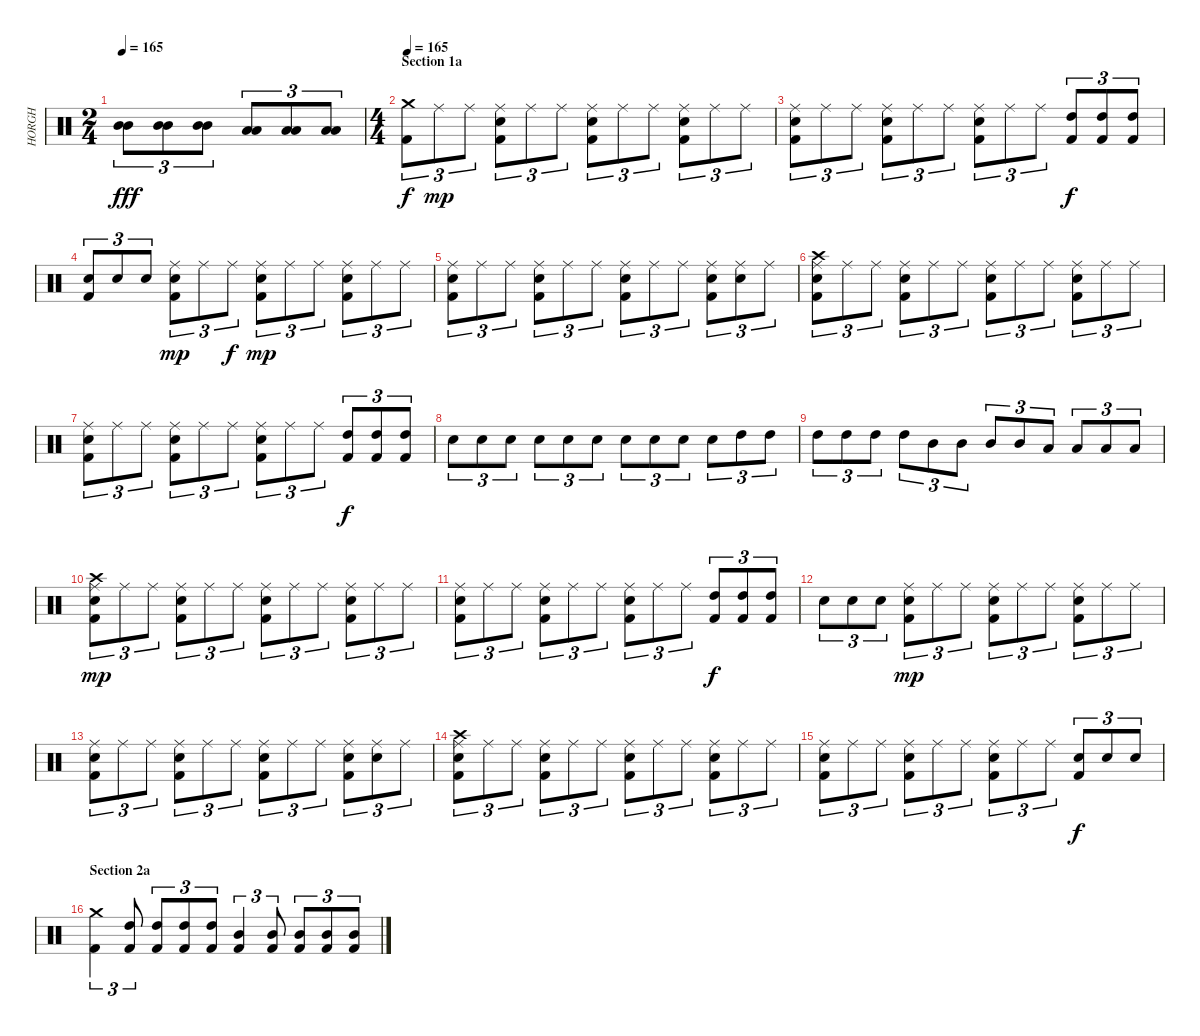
\track ("HORGH" "HORGH") {instrument percussion}
\staff {score}
\articulation defaults
\ts (2 4)
\tempo 165
\clef neutral
\ks c
("Mid Tom (hit)" "Mid Tom (hit)").8{tu (3 2) dy fff} ("Mid Tom (hit)" "Mid Tom (hit)").8{tu (3 2)} ("Mid Tom (hit)" "Mid Tom (hit)").8{tu (3 2)} ("Low Tom (hit)" "Low Tom (hit)").8{tu (3 2)} ("Low Tom (hit)" "Low Tom (hit)").8{tu (3 2)} ("Low Tom (hit)" "Low Tom (hit)").8{tu (3 2)} |
\ts (4 4)
\section ("" "Section 1a")
\tempo 165
("Crash medium (hit)" "Kick (hit) 2").8{tu (3 2) dy f} "Ride (middle)".8{tu (3 2) dy mp} "Ride (middle)".8{tu (3 2)} ("Ride (middle)" "Electric Snare (hit)" "Kick (hit) 2").8{tu (3 2)} "Ride (middle)".8{tu (3 2)} "Ride (middle)".8{tu (3 2)} ("Ride (middle)" "Electric Snare (hit)" "Kick (hit) 2").8{tu (3 2)} "Ride (middle)".8{tu (3 2)} "Ride (middle)".8{tu (3 2)} ("Ride (middle)" "Electric Snare (hit)" "Kick (hit) 2").8{tu (3 2)} "Ride (middle)".8{tu (3 2)} "Ride (middle)".8{tu (3 2)} |
("Ride (middle)" "Kick (hit) 2" "Electric Snare (hit)").8{tu (3 2)} "Ride (middle)".8{tu (3 2)} "Ride (middle)".8{tu (3 2)} ("Ride (middle)" "Electric Snare (hit)" "Kick (hit) 2").8{tu (3 2)} "Ride (middle)".8{tu (3 2)} "Ride (middle)".8{tu (3 2)} ("Ride (middle)" "Electric Snare (hit)" "Kick (hit) 2").8{tu (3 2)} "Ride (middle)".8{tu (3 2)} "Ride (middle)".8{tu (3 2)} ("High Tom (hit)" "Kick (hit) 2").8{tu (3 2) dy f} ("High Tom (hit)" "Kick (hit) 2").8{tu (3 2)} ("High Tom (hit)" "Kick (hit) 2").8{tu (3 2)} |
("Electric Snare (hit)" "Kick (hit) 2").8{tu (3 2)} "Electric Snare (hit)".8{tu (3 2)} "Electric Snare (hit)".8{tu (3 2)} ("Ride (middle)" "Electric Snare (hit)" "Kick (hit) 2").8{tu (3 2) dy mp} "Ride (middle)".8{tu (3 2)} "Ride (middle)".8{tu (3 2) dy f} ("Ride (middle)" "Electric Snare (hit)" "Kick (hit) 2").8{tu (3 2) dy mp} "Ride (middle)".8{tu (3 2)} "Ride (middle)".8{tu (3 2)} ("Ride (middle)" "Electric Snare (hit)" "Kick (hit) 2").8{tu (3 2)} "Ride (middle)".8{tu (3 2)} "Ride (middle)".8{tu (3 2)} |
("Ride (middle)" "Kick (hit) 2" "Electric Snare (hit)").8{tu (3 2)} "Ride (middle)".8{tu (3 2)} "Ride (middle)".8{tu (3 2)} ("Ride (middle)" "Electric Snare (hit)" "Kick (hit) 2").8{tu (3 2)} "Ride (middle)".8{tu (3 2)} "Ride (middle)".8{tu (3 2)} ("Ride (middle)" "Electric Snare (hit)" "Kick (hit) 2").8{tu (3 2)} "Ride (middle)".8{tu (3 2)} "Ride (middle)".8{tu (3 2)} ("Ride (middle)" "Electric Snare (hit)" "Kick (hit) 2").8{tu (3 2)} ("Ride (middle)" "Electric Snare (hit)").8{tu (3 2)} "Ride (middle)".8{tu (3 2)} |
("Ride (middle)" "Crash high (hit)" "Kick (hit) 2" "Electric Snare (hit)").8{tu (3 2)} "Ride (middle)".8{tu (3 2)} "Ride (middle)".8{tu (3 2)} ("Ride (middle)" "Electric Snare (hit)" "Kick (hit) 2").8{tu (3 2)} "Ride (middle)".8{tu (3 2)} "Ride (middle)".8{tu (3 2)} ("Ride (middle)" "Electric Snare (hit)" "Kick (hit) 2").8{tu (3 2)} "Ride (middle)".8{tu (3 2)} "Ride (middle)".8{tu (3 2)} ("Ride (middle)" "Electric Snare (hit)" "Kick (hit) 2").8{tu (3 2)} "Ride (middle)".8{tu (3 2)} "Ride (middle)".8{tu (3 2)} |
("Ride (middle)" "Kick (hit) 2" "Electric Snare (hit)").8{tu (3 2)} "Ride (middle)".8{tu (3 2)} "Ride (middle)".8{tu (3 2)} ("Ride (middle)" "Electric Snare (hit)" "Kick (hit) 2").8{tu (3 2)} "Ride (middle)".8{tu (3 2)} "Ride (middle)".8{tu (3 2)} ("Ride (middle)" "Electric Snare (hit)" "Kick (hit) 2").8{tu (3 2)} "Ride (middle)".8{tu (3 2)} "Ride (middle)".8{tu (3 2)} ("High Tom (hit)" "Kick (hit) 2").8{tu (3 2) dy f} ("High Tom (hit)" "Kick (hit) 2").8{tu (3 2)} ("High Tom (hit)" "Kick (hit) 2").8{tu (3 2)} |
"Electric Snare (hit)".8{tu (3 2)} "Electric Snare (hit)".8{tu (3 2)} "Electric Snare (hit)".8{tu (3 2)} "Electric Snare (hit)".8{tu (3 2)} "Electric Snare (hit)".8{tu (3 2)} "Electric Snare (hit)".8{tu (3 2)} "Electric Snare (hit)".8{tu (3 2)} "Electric Snare (hit)".8{tu (3 2)} "Electric Snare (hit)".8{tu (3 2)} "Electric Snare (hit)".8{tu (3 2)} "High Tom (hit)".8{tu (3 2)} "High Tom (hit)".8{tu (3 2)} |
"High Tom (hit)".8{tu (3 2)} "High Tom (hit)".8{tu (3 2)} "High Tom (hit)".8{tu (3 2)} "High Tom (hit)".8{tu (3 2)} "Mid Tom (hit)".8{tu (3 2)} "Mid Tom (hit)".8{tu (3 2)} "Mid Tom (hit)".8{tu (3 2)} "Mid Tom (hit)".8{tu (3 2)} "Low Tom (hit)".8{tu (3 2)} "Low Tom (hit)".8{tu (3 2)} "Low Tom (hit)".8{tu (3 2)} "Low Tom (hit)".8{tu (3 2)} |
("Ride (middle)" "Crash high (hit)" "Kick (hit) 2" "Electric Snare (hit)").8{tu (3 2) dy mp} "Ride (middle)".8{tu (3 2)} "Ride (middle)".8{tu (3 2)} ("Ride (middle)" "Electric Snare (hit)" "Kick (hit) 2").8{tu (3 2)} "Ride (middle)".8{tu (3 2)} "Ride (middle)".8{tu (3 2)} ("Ride (middle)" "Electric Snare (hit)" "Kick (hit) 2").8{tu (3 2)} "Ride (middle)".8{tu (3 2)} "Ride (middle)".8{tu (3 2)} ("Ride (middle)" "Electric Snare (hit)" "Kick (hit) 2").8{tu (3 2)} "Ride (middle)".8{tu (3 2)} "Ride (middle)".8{tu (3 2)} |
("Ride (middle)" "Kick (hit) 2" "Electric Snare (hit)").8{tu (3 2)} "Ride (middle)".8{tu (3 2)} "Ride (middle)".8{tu (3 2)} ("Ride (middle)" "Electric Snare (hit)" "Kick (hit) 2").8{tu (3 2)} "Ride (middle)".8{tu (3 2)} "Ride (middle)".8{tu (3 2)} ("Ride (middle)" "Electric Snare (hit)" "Kick (hit) 2").8{tu (3 2)} "Ride (middle)".8{tu (3 2)} "Ride (middle)".8{tu (3 2)} ("High Tom (hit)" "Kick (hit) 2").8{tu (3 2) dy f} ("High Tom (hit)" "Kick (hit) 2").8{tu (3 2)} ("High Tom (hit)" "Kick (hit) 2").8{tu (3 2)} |
"Electric Snare (hit)".8{tu (3 2)} "Electric Snare (hit)".8{tu (3 2)} "Electric Snare (hit)".8{tu (3 2)} ("Ride (middle)" "Electric Snare (hit)" "Kick (hit) 2").8{tu (3 2) dy mp} "Ride (middle)".8{tu (3 2)} "Ride (middle)".8{tu (3 2)} ("Ride (middle)" "Electric Snare (hit)" "Kick (hit) 2").8{tu (3 2)} "Ride (middle)".8{tu (3 2)} "Ride (middle)".8{tu (3 2)} ("Ride (middle)" "Electric Snare (hit)" "Kick (hit) 2").8{tu (3 2)} "Ride (middle)".8{tu (3 2)} "Ride (middle)".8{tu (3 2)} |
("Ride (middle)" "Kick (hit) 2" "Electric Snare (hit)").8{tu (3 2)} "Ride (middle)".8{tu (3 2)} "Ride (middle)".8{tu (3 2)} ("Ride (middle)" "Electric Snare (hit)" "Kick (hit) 2").8{tu (3 2)} "Ride (middle)".8{tu (3 2)} "Ride (middle)".8{tu (3 2)} ("Ride (middle)" "Electric Snare (hit)" "Kick (hit) 2").8{tu (3 2)} "Ride (middle)".8{tu (3 2)} "Ride (middle)".8{tu (3 2)} ("Ride (middle)" "Electric Snare (hit)" "Kick (hit) 2").8{tu (3 2)} ("Ride (middle)" "Electric Snare (hit)").8{tu (3 2)} "Ride (middle)".8{tu (3 2)} |
("Ride (middle)" "Crash high (hit)" "Kick (hit) 2" "Electric Snare (hit)").8{tu (3 2)} "Ride (middle)".8{tu (3 2)} "Ride (middle)".8{tu (3 2)} ("Ride (middle)" "Electric Snare (hit)" "Kick (hit) 2").8{tu (3 2)} "Ride (middle)".8{tu (3 2)} "Ride (middle)".8{tu (3 2)} ("Ride (middle)" "Electric Snare (hit)" "Kick (hit) 2").8{tu (3 2)} "Ride (middle)".8{tu (3 2)} "Ride (middle)".8{tu (3 2)} ("Ride (middle)" "Electric Snare (hit)" "Kick (hit) 2").8{tu (3 2)} "Ride (middle)".8{tu (3 2)} "Ride (middle)".8{tu (3 2)} |
("Ride (middle)" "Kick (hit) 2" "Electric Snare (hit)").8{tu (3 2)} "Ride (middle)".8{tu (3 2)} "Ride (middle)".8{tu (3 2)} ("Ride (middle)" "Electric Snare (hit)" "Kick (hit) 2").8{tu (3 2)} "Ride (middle)".8{tu (3 2)} "Ride (middle)".8{tu (3 2)} ("Ride (middle)" "Electric Snare (hit)" "Kick (hit) 2").8{tu (3 2)} "Ride (middle)".8{tu (3 2)} "Ride (middle)".8{tu (3 2)} ("Electric Snare (hit)" "Kick (hit) 2").8{tu (3 2) dy f} "Electric Snare (hit)".8{tu (3 2)} "Electric Snare (hit)".8{tu (3 2)} |
\section ("" "Section 2a")
("Crash medium (hit)" "Kick (hit) 2").4{tu (3 2)} ("High Tom (hit)" "Kick (hit) 2").8{tu (3 2)} ("High Tom (hit)" "Kick (hit) 2").8{tu (3 2)} ("High Tom (hit)" "Kick (hit) 2").8{tu (3 2)} ("High Tom (hit)" "Kick (hit) 2").8{tu (3 2)} ("Mid Tom (hit)" "Kick (hit) 2").4{tu (3 2)} ("Mid Tom (hit)" "Kick (hit) 2").8{tu (3 2)} ("Mid Tom (hit)" "Kick (hit) 2").8{tu (3 2)} ("Mid Tom (hit)" "Kick (hit) 2").8{tu (3 2)} ("Mid Tom (hit)" "Kick (hit) 2").8{tu (3 2)}
